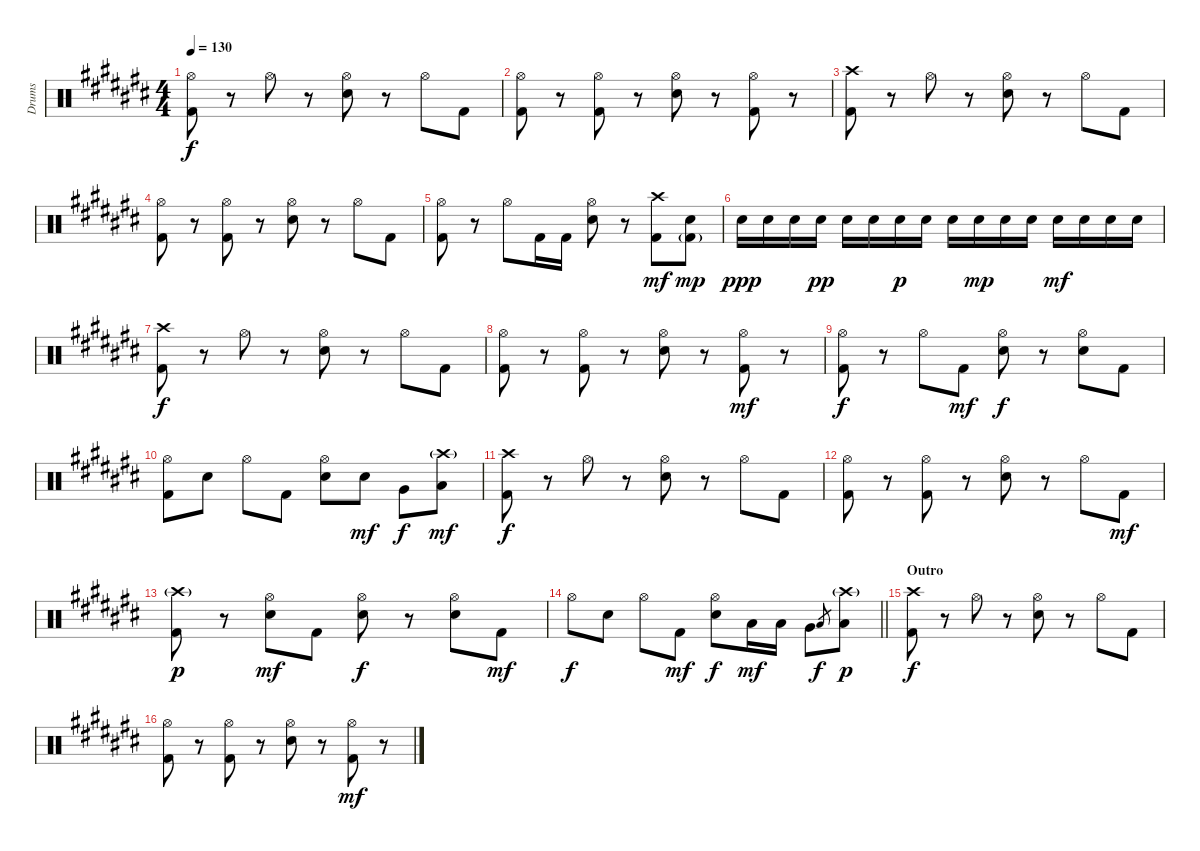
\track ("Drums" "Drums") {instrument percussion}
\staff {score}
\articulation defaults
\ts (4 4)
\tempo 130
\clef neutral
\ks c#
("Hi-Hat (open)" "Kick (hit) 2").8{dy f} r.8 "Hi-Hat (open)".8 r.8 ("Hi-Hat (open)" "Electric Snare (hit)").8 r.8 "Hi-Hat (open)".8 "Kick (hit) 2".8 |
("Hi-Hat (open)" "Kick (hit) 2").8 r.8 ("Hi-Hat (open)" "Kick (hit) 2").8 r.8 ("Hi-Hat (open)" "Electric Snare (hit)").8 r.8 ("Hi-Hat (open)" "Kick (hit) 2").8 r.8 |
("Crash high (hit)" "Kick (hit) 2").8 r.8 "Hi-Hat (open)".8 r.8 ("Hi-Hat (open)" "Electric Snare (hit)").8 r.8 "Hi-Hat (open)".8 "Kick (hit) 2".8 |
("Hi-Hat (open)" "Kick (hit) 2").8 r.8 ("Hi-Hat (open)" "Kick (hit) 2").8 r.8 ("Hi-Hat (open)" "Electric Snare (hit)").8 r.8 "Hi-Hat (open)".8 "Kick (hit) 2".8 |
("Hi-Hat (open)" "Kick (hit) 2").8 r.8 "Hi-Hat (open)".8 "Kick (hit) 2".16 "Kick (hit) 2".16 ("Hi-Hat (open)" "Electric Snare (hit)").8 r.8 ("Crash high (hit)" "Kick (hit) 2").8{dy mf} ("Electric Snare (hit)" "Kick (hit) 2"{g}).8{dy mp} |
"Electric Snare (hit)".16{dy ppp} "Electric Snare (hit)".16 "Electric Snare (hit)".16 "Electric Snare (hit)".16{dy pp} "Electric Snare (hit)".16 "Electric Snare (hit)".16 "Electric Snare (hit)".16{dy p} "Electric Snare (hit)".16 "Electric Snare (hit)".16 "Electric Snare (hit)".16{dy mp} "Electric Snare (hit)".16 "Electric Snare (hit)".16 "Electric Snare (hit)".16{dy mf} "Electric Snare (hit)".16 "Electric Snare (hit)".16 "Electric Snare (hit)".16 |
("Crash high (hit)" "Kick (hit) 2").8{dy f} r.8 "Hi-Hat (open)".8 r.8 ("Hi-Hat (open)" "Electric Snare (hit)").8 r.8 "Hi-Hat (open)".8 "Kick (hit) 2".8 |
("Hi-Hat (open)" "Kick (hit) 2").8 r.8 ("Hi-Hat (open)" "Kick (hit) 2").8 r.8 ("Hi-Hat (open)" "Electric Snare (hit)").8 r.8 ("Hi-Hat (open)" "Kick (hit) 2").8{dy mf} r.8 |
("Hi-Hat (open)" "Kick (hit) 2").8{dy f} r.8 "Hi-Hat (open)".8 "Kick (hit) 2".8{dy mf} ("Hi-Hat (open)" "Electric Snare (hit)").8{dy f} r.8 ("Hi-Hat (open)" "Electric Snare (hit)").8 "Kick (hit) 2".8 |
("Hi-Hat (open)" "Kick (hit) 2").8 "Electric Snare (hit)".8 "Hi-Hat (open)".8 "Kick (hit) 2".8 ("Hi-Hat (open)" "Electric Snare (hit)").8 "Electric Snare (hit)".8{dy mf} "Very Low Tom (hit)".8{dy f} ("Crash high (hit)"{g} "Low Floor Tom (hit)").8{dy mf} |
("Crash high (hit)" "Kick (hit) 2").8{dy f} r.8 "Hi-Hat (open)".8 r.8 ("Hi-Hat (open)" "Electric Snare (hit)").8 r.8 "Hi-Hat (open)".8 "Kick (hit) 2".8 |
("Hi-Hat (open)" "Kick (hit) 2").8 r.8 ("Hi-Hat (open)" "Kick (hit) 2").8 r.8 ("Hi-Hat (open)" "Electric Snare (hit)").8 r.8 "Hi-Hat (open)".8 "Kick (hit) 2".8{dy mf} |
("Crash high (hit)"{g} "Kick (hit) 2").8{dy p} r.8 ("Hi-Hat (open)" "Electric Snare (hit)").8{dy mf} "Kick (hit) 2".8 ("Hi-Hat (open)" "Electric Snare (hit)").8{dy f} r.8 ("Hi-Hat (open)" "Electric Snare (hit)").8 "Kick (hit) 2".8{dy mf} |
\barLineRight lightlight "Hi-Hat (open)".8{dy f} "Electric Snare (hit)".8 "Hi-Hat (open)".8 "Kick (hit) 2".8{dy mf}
("Hi-Hat (open)" "Electric Snare (hit)").8{dy f} "Low Tom (hit)".16{dy mf} "Low Tom (hit)".16 "Very Low Tom (hit)".8 "Low Floor Tom (hit)".8{gr dy f} ("Crash high (hit)"{g} "Low Floor Tom (hit)").8{dy p} |
\section ("" "Outro")
("Crash high (hit)" "Kick (hit) 2").8{dy f} r.8 "Hi-Hat (open)".8 r.8 ("Hi-Hat (open)" "Electric Snare (hit)").8 r.8 "Hi-Hat (open)".8 "Kick (hit) 2".8 |
("Hi-Hat (open)" "Kick (hit) 2").8 r.8 ("Hi-Hat (open)" "Kick (hit) 2").8 r.8 ("Hi-Hat (open)" "Electric Snare (hit)").8 r.8 ("Hi-Hat (open)" "Kick (hit) 2").8{dy mf} r.8
